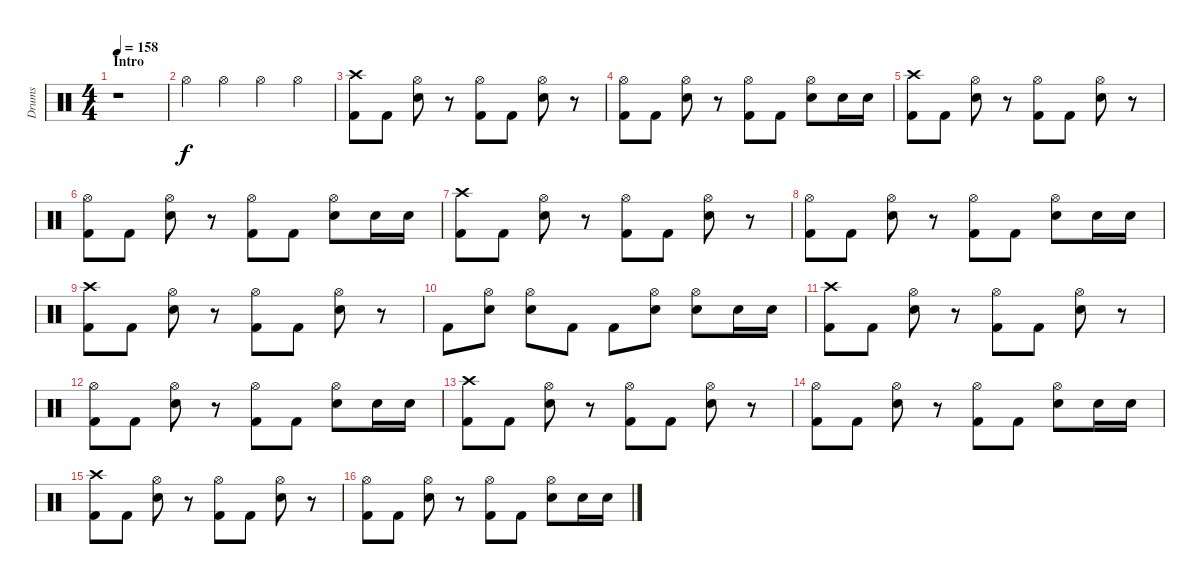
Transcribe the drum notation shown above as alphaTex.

\track ("Drums" "Drums") {instrument percussion}
\staff {score}
\articulation defaults
\ts (4 4)
\section ("" "Intro")
\tempo 158
\clef neutral
\ks c
r.1{dy f} |
"Hi-Hat (open)".4 "Hi-Hat (open)".4 "Hi-Hat (open)".4 "Hi-Hat (open)".4 |
("Crash high (hit)" "Kick (hit) 2").8 "Kick (hit) 2".8 ("Hi-Hat (open)" "Electric Snare (hit)").8 r.8 ("Hi-Hat (open)" "Kick (hit) 2").8 "Kick (hit) 2".8 ("Hi-Hat (open)" "Electric Snare (hit)").8 r.8 |
("Hi-Hat (open)" "Kick (hit) 2").8 "Kick (hit) 2".8 ("Hi-Hat (open)" "Electric Snare (hit)").8 r.8 ("Hi-Hat (open)" "Kick (hit) 2").8 "Kick (hit) 2".8 ("Hi-Hat (open)" "Electric Snare (hit)").8 "Electric Snare (hit)".16 "Electric Snare (hit)".16 |
("Crash high (hit)" "Kick (hit) 2").8 "Kick (hit) 2".8 ("Hi-Hat (open)" "Electric Snare (hit)").8 r.8 ("Hi-Hat (open)" "Kick (hit) 2").8 "Kick (hit) 2".8 ("Hi-Hat (open)" "Electric Snare (hit)").8 r.8 |
("Hi-Hat (open)" "Kick (hit) 2").8 "Kick (hit) 2".8 ("Hi-Hat (open)" "Electric Snare (hit)").8 r.8 ("Hi-Hat (open)" "Kick (hit) 2").8 "Kick (hit) 2".8 ("Hi-Hat (open)" "Electric Snare (hit)").8 "Electric Snare (hit)".16 "Electric Snare (hit)".16 |
("Crash high (hit)" "Kick (hit) 2").8 "Kick (hit) 2".8 ("Hi-Hat (open)" "Electric Snare (hit)").8 r.8 ("Hi-Hat (open)" "Kick (hit) 2").8 "Kick (hit) 2".8 ("Hi-Hat (open)" "Electric Snare (hit)").8 r.8 |
("Hi-Hat (open)" "Kick (hit) 2").8 "Kick (hit) 2".8 ("Hi-Hat (open)" "Electric Snare (hit)").8 r.8 ("Hi-Hat (open)" "Kick (hit) 2").8 "Kick (hit) 2".8 ("Hi-Hat (open)" "Electric Snare (hit)").8 "Electric Snare (hit)".16 "Electric Snare (hit)".16 |
("Crash high (hit)" "Kick (hit) 2").8 "Kick (hit) 2".8 ("Hi-Hat (open)" "Electric Snare (hit)").8 r.8 ("Hi-Hat (open)" "Kick (hit) 2").8 "Kick (hit) 2".8 ("Hi-Hat (open)" "Electric Snare (hit)").8 r.8 |
"Kick (hit) 2".8 ("Hi-Hat (open)" "Electric Snare (hit)").8 ("Hi-Hat (open)" "Electric Snare (hit)").8 "Kick (hit) 2".8 "Kick (hit) 2".8 ("Hi-Hat (open)" "Electric Snare (hit)").8 ("Hi-Hat (open)" "Electric Snare (hit)").8 "Electric Snare (hit)".16 "Electric Snare (hit)".16 |
("Crash high (hit)" "Kick (hit) 2").8 "Kick (hit) 2".8 ("Hi-Hat (open)" "Electric Snare (hit)").8 r.8 ("Hi-Hat (open)" "Kick (hit) 2").8 "Kick (hit) 2".8 ("Hi-Hat (open)" "Electric Snare (hit)").8 r.8 |
("Hi-Hat (open)" "Kick (hit) 2").8 "Kick (hit) 2".8 ("Hi-Hat (open)" "Electric Snare (hit)").8 r.8 ("Hi-Hat (open)" "Kick (hit) 2").8 "Kick (hit) 2".8 ("Hi-Hat (open)" "Electric Snare (hit)").8 "Electric Snare (hit)".16 "Electric Snare (hit)".16 |
("Crash high (hit)" "Kick (hit) 2").8 "Kick (hit) 2".8 ("Hi-Hat (open)" "Electric Snare (hit)").8 r.8 ("Hi-Hat (open)" "Kick (hit) 2").8 "Kick (hit) 2".8 ("Hi-Hat (open)" "Electric Snare (hit)").8 r.8 |
("Hi-Hat (open)" "Kick (hit) 2").8 "Kick (hit) 2".8 ("Hi-Hat (open)" "Electric Snare (hit)").8 r.8 ("Hi-Hat (open)" "Kick (hit) 2").8 "Kick (hit) 2".8 ("Hi-Hat (open)" "Electric Snare (hit)").8 "Electric Snare (hit)".16 "Electric Snare (hit)".16 |
("Crash high (hit)" "Kick (hit) 2").8 "Kick (hit) 2".8 ("Hi-Hat (open)" "Electric Snare (hit)").8 r.8 ("Hi-Hat (open)" "Kick (hit) 2").8 "Kick (hit) 2".8 ("Hi-Hat (open)" "Electric Snare (hit)").8 r.8 |
("Hi-Hat (open)" "Kick (hit) 2").8 "Kick (hit) 2".8 ("Hi-Hat (open)" "Electric Snare (hit)").8 r.8 ("Hi-Hat (open)" "Kick (hit) 2").8 "Kick (hit) 2".8 ("Hi-Hat (open)" "Electric Snare (hit)").8 "Electric Snare (hit)".16 "Electric Snare (hit)".16
